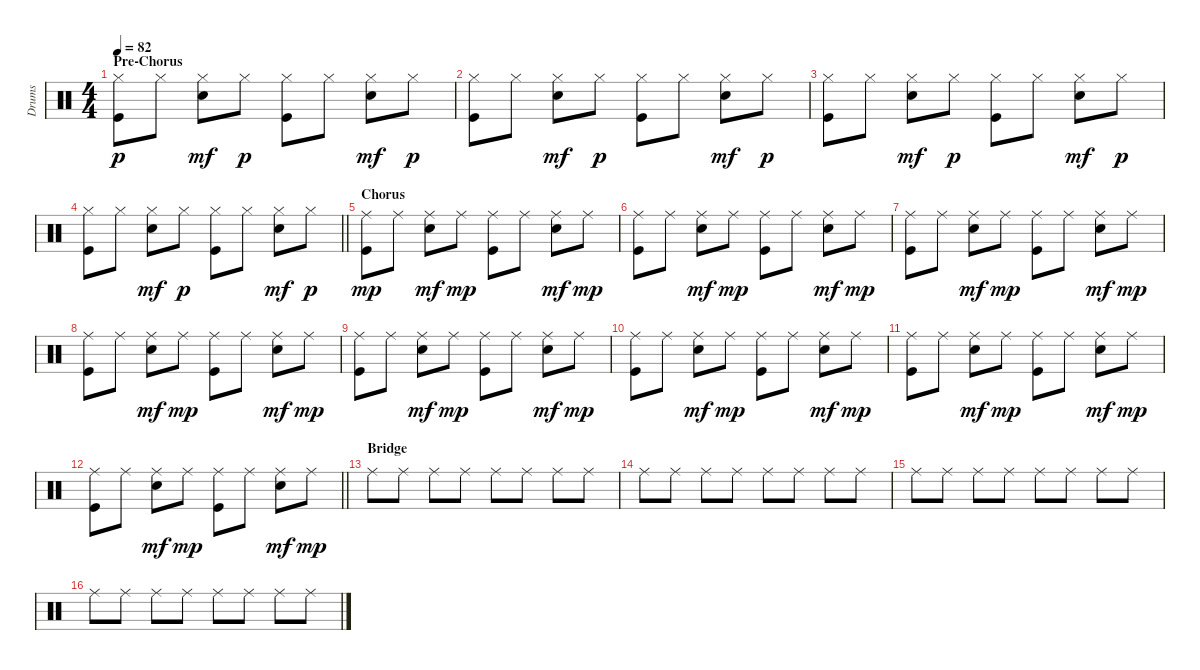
\track ("Drums" "Drums") {instrument percussion}
\staff {score}
\articulation defaults
\ts (4 4)
\section ("" "Pre-Chorus")
\tempo 82
\clef neutral
\ks c
("Hi-Hat (closed)" "Kick (hit)").8{dy p} "Hi-Hat (closed)".8 ("Hi-Hat (closed)" "Snare (hit) 2").8{dy mf} "Hi-Hat (closed)".8{dy p} ("Hi-Hat (closed)" "Kick (hit)").8 "Hi-Hat (closed)".8 ("Hi-Hat (closed)" "Snare (hit) 2").8{dy mf} "Hi-Hat (closed)".8{dy p} |
("Hi-Hat (closed)" "Kick (hit)").8 "Hi-Hat (closed)".8 ("Hi-Hat (closed)" "Snare (hit) 2").8{dy mf} "Hi-Hat (closed)".8{dy p} ("Hi-Hat (closed)" "Kick (hit)").8 "Hi-Hat (closed)".8 ("Hi-Hat (closed)" "Snare (hit) 2").8{dy mf} "Hi-Hat (closed)".8{dy p} |
("Hi-Hat (closed)" "Kick (hit)").8 "Hi-Hat (closed)".8 ("Hi-Hat (closed)" "Snare (hit) 2").8{dy mf} "Hi-Hat (closed)".8{dy p} ("Hi-Hat (closed)" "Kick (hit)").8 "Hi-Hat (closed)".8 ("Hi-Hat (closed)" "Snare (hit) 2").8{dy mf} "Hi-Hat (closed)".8{dy p} |
\barLineRight lightlight
("Hi-Hat (closed)" "Kick (hit)").8 "Hi-Hat (closed)".8 ("Hi-Hat (closed)" "Snare (hit) 2").8{dy mf} "Hi-Hat (closed)".8{dy p} ("Hi-Hat (closed)" "Kick (hit)").8 "Hi-Hat (closed)".8 ("Hi-Hat (closed)" "Snare (hit) 2").8{dy mf} "Hi-Hat (closed)".8{dy p} |
\section ("" "Chorus")
("Ride (middle)" "Kick (hit)").8{dy mp} "Ride (middle)".8 ("Ride (middle)" "Snare (hit) 2").8{dy mf} "Ride (middle)".8{dy mp} ("Ride (middle)" "Kick (hit)").8 "Ride (middle)".8 ("Ride (middle)" "Snare (hit) 2").8{dy mf} "Ride (middle)".8{dy mp} |
("Ride (middle)" "Kick (hit)").8 "Ride (middle)".8 ("Ride (middle)" "Snare (hit) 2").8{dy mf} "Ride (middle)".8{dy mp} ("Ride (middle)" "Kick (hit)").8 "Ride (middle)".8 ("Ride (middle)" "Snare (hit) 2").8{dy mf} "Ride (middle)".8{dy mp} |
("Ride (middle)" "Kick (hit)").8 "Ride (middle)".8 ("Ride (middle)" "Snare (hit) 2").8{dy mf} "Ride (middle)".8{dy mp} ("Ride (middle)" "Kick (hit)").8 "Ride (middle)".8 ("Ride (middle)" "Snare (hit) 2").8{dy mf} "Ride (middle)".8{dy mp} |
("Ride (middle)" "Kick (hit)").8 "Ride (middle)".8 ("Ride (middle)" "Snare (hit) 2").8{dy mf} "Ride (middle)".8{dy mp} ("Ride (middle)" "Kick (hit)").8 "Ride (middle)".8 ("Ride (middle)" "Snare (hit) 2").8{dy mf} "Ride (middle)".8{dy mp} |
("Ride (middle)" "Kick (hit)").8 "Ride (middle)".8 ("Ride (middle)" "Snare (hit) 2").8{dy mf} "Ride (middle)".8{dy mp} ("Ride (middle)" "Kick (hit)").8 "Ride (middle)".8 ("Ride (middle)" "Snare (hit) 2").8{dy mf} "Ride (middle)".8{dy mp} |
("Ride (middle)" "Kick (hit)").8 "Ride (middle)".8 ("Ride (middle)" "Snare (hit) 2").8{dy mf} "Ride (middle)".8{dy mp} ("Ride (middle)" "Kick (hit)").8 "Ride (middle)".8 ("Ride (middle)" "Snare (hit) 2").8{dy mf} "Ride (middle)".8{dy mp} |
("Ride (middle)" "Kick (hit)").8 "Ride (middle)".8 ("Ride (middle)" "Snare (hit) 2").8{dy mf} "Ride (middle)".8{dy mp} ("Ride (middle)" "Kick (hit)").8 "Ride (middle)".8 ("Ride (middle)" "Snare (hit) 2").8{dy mf} "Ride (middle)".8{dy mp} |
\barLineRight lightlight
("Ride (middle)" "Kick (hit)").8 "Ride (middle)".8 ("Ride (middle)" "Snare (hit) 2").8{dy mf} "Ride (middle)".8{dy mp} ("Ride (middle)" "Kick (hit)").8 "Ride (middle)".8 ("Ride (middle)" "Snare (hit) 2").8{dy mf} "Ride (middle)".8{dy mp} |
\section ("" "Bridge")
"Ride (middle)".8 "Ride (middle)".8 "Ride (middle)".8 "Ride (middle)".8 "Ride (middle)".8 "Ride (middle)".8 "Ride (middle)".8 "Ride (middle)".8 |
"Ride (middle)".8 "Ride (middle)".8 "Ride (middle)".8 "Ride (middle)".8 "Ride (middle)".8 "Ride (middle)".8 "Ride (middle)".8 "Ride (middle)".8 |
"Ride (middle)".8 "Ride (middle)".8 "Ride (middle)".8 "Ride (middle)".8 "Ride (middle)".8 "Ride (middle)".8 "Ride (middle)".8 "Ride (middle)".8 |
"Ride (middle)".8 "Ride (middle)".8 "Ride (middle)".8 "Ride (middle)".8 "Ride (middle)".8 "Ride (middle)".8 "Ride (middle)".8 "Ride (middle)".8
